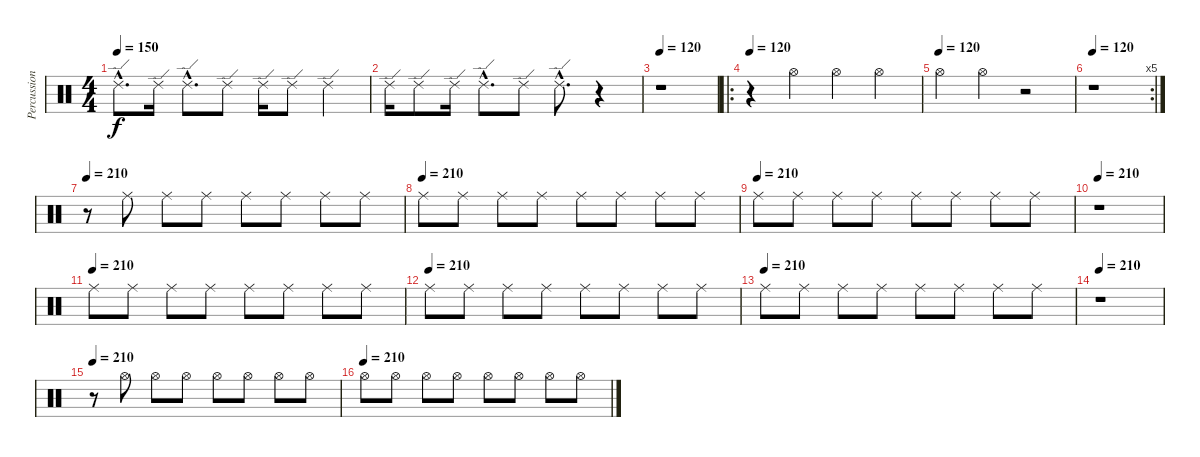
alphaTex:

\track ("Percussion" "Percussion") {instrument percussion}
\staff {score}
\articulation defaults
\ts (4 4)
\tempo 150
\clef neutral
\ks c "Ride (edge) 2"{hac}.8{d dy f} "Ride (edge) 2".16 "Ride (edge) 2"{hac}.8{d} "Ride (edge) 2".8 "Ride (edge) 2".16 "Ride (edge) 2".8 "Ride (edge) 2".4
|
"Ride (edge) 2".16 "Ride (edge) 2".8 "Ride (edge) 2".16 "Ride (edge) 2"{hac}.8{d} "Ride (edge) 2".8 "Ride (edge) 2"{hac}.8{d} r.4 |
\tempo 120
r.1 |
\ro
\tempo 120
r.4 "Hi-Hat (open)".4 "Hi-Hat (open)".4 "Hi-Hat (open)".4 |
\tempo (120)
"Hi-Hat (open)".4 "Hi-Hat (open)".4 r.2 |
\rc 5
\tempo 120
r.1 |
\tempo 210
r.8 "Ride (middle)".8 "Ride (middle)".8 "Ride (middle)".8 "Ride (middle)".8 "Ride (middle)".8 "Ride (middle)".8 "Ride (middle)".8 |
\tempo (210)
"Ride (middle)".8 "Ride (middle)".8 "Ride (middle)".8 "Ride (middle)".8 "Ride (middle)".8 "Ride (middle)".8 "Ride (middle)".8 "Ride (middle)".8 |
\tempo (210)
"Ride (middle)".8 "Ride (middle)".8 "Ride (middle)".8 "Ride (middle)".8 "Ride (middle)".8 "Ride (middle)".8 "Ride (middle)".8 "Ride (middle)".8 |
\tempo 210
r.1 |
\tempo (210)
"Ride (middle)".8 "Ride (middle)".8 "Ride (middle)".8 "Ride (middle)".8 "Ride (middle)".8 "Ride (middle)".8 "Ride (middle)".8 "Ride (middle)".8 |
\tempo (210)
"Ride (middle)".8 "Ride (middle)".8 "Ride (middle)".8 "Ride (middle)".8 "Ride (middle)".8 "Ride (middle)".8 "Ride (middle)".8 "Ride (middle)".8 |
\tempo (210)
"Ride (middle)".8 "Ride (middle)".8 "Ride (middle)".8 "Ride (middle)".8 "Ride (middle)".8 "Ride (middle)".8 "Ride (middle)".8 "Ride (middle)".8 |
\tempo 210
r.1 |
\tempo 210
r.8 "Hi-Hat (open)".8 "Hi-Hat (open)".8 "Hi-Hat (open)".8 "Hi-Hat (open)".8 "Hi-Hat (open)".8 "Hi-Hat (open)".8 "Hi-Hat (open)".8 |
\tempo (210)
"Hi-Hat (open)".8 "Hi-Hat (open)".8 "Hi-Hat (open)".8 "Hi-Hat (open)".8 "Hi-Hat (open)".8 "Hi-Hat (open)".8 "Hi-Hat (open)".8 "Hi-Hat (open)".8
